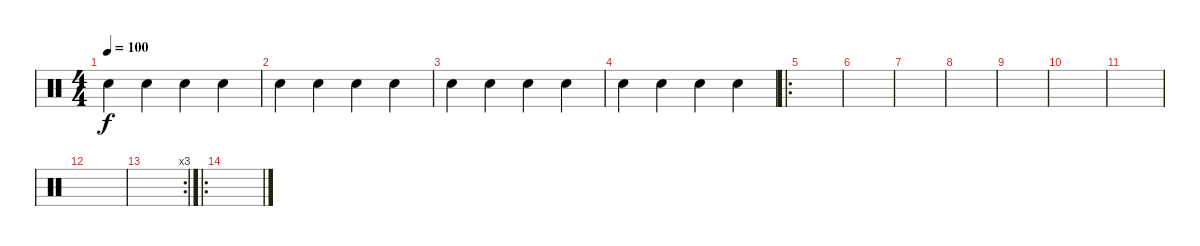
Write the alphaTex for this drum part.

\track "" {instrument percussion}
\staff {score}
\articulation defaults
\ts (4 4)
\tempo 100
\clef neutral
\ks c "Snare (hit) 2".4{dy f} "Electric Snare (hit)".4 "Snare (hit) 2".4 "Electric Snare (hit)".4
|
"Snare (hit) 2".4 "Electric Snare (hit)".4 "Snare (hit) 2".4 "Electric Snare (hit)".4 |
"Snare (hit) 2".4 "Electric Snare (hit)".4 "Snare (hit) 2".4 "Electric Snare (hit)".4 |
"Snare (hit) 2".4 "Electric Snare (hit)".4 "Snare (hit) 2".4 "Electric Snare (hit)".4 |
\ro
|
|
|
|
|
|
|
|
\rc 3
|
\ro
